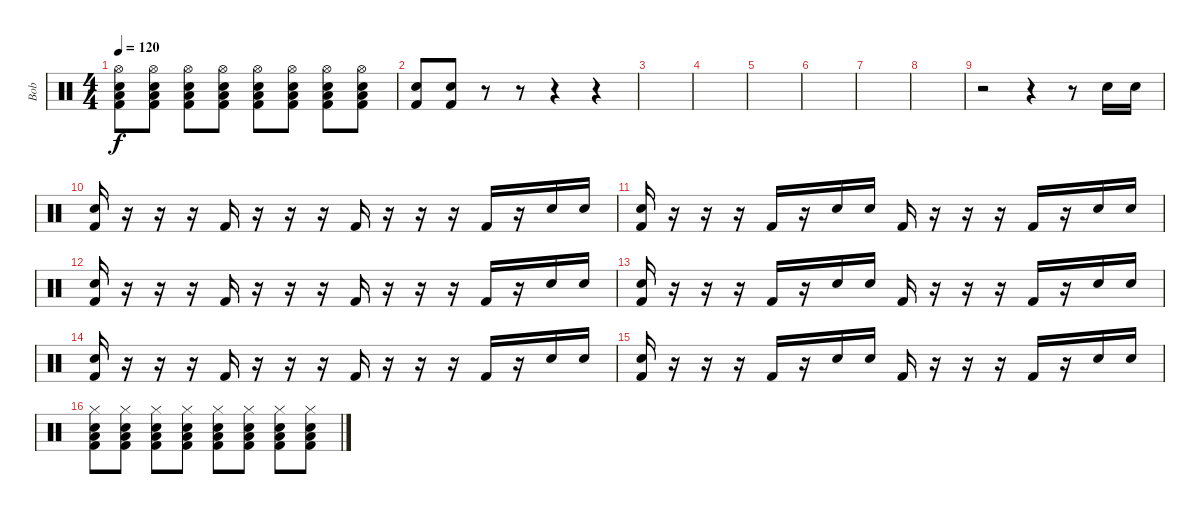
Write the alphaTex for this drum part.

\track ("Bob" "Bob") {instrument percussion}
\staff {score}
\articulation defaults
\ts (4 4)
\tempo 120
\clef neutral
\ks c
("Hi-Hat (open)" "Snare (hit) 2" "Low Tom (hit)" "Kick (hit) 2").8{dy f volume 10} ("Hi-Hat (open)" "Snare (hit) 2" "Low Tom (hit)" "Kick (hit) 2").8{volume 11} ("Hi-Hat (open)" "Snare (hit) 2" "Low Tom (hit)" "Kick (hit) 2").8{volume 12} ("Hi-Hat (open)" "Snare (hit) 2" "Low Tom (hit)" "Kick (hit) 2").8{volume 13} ("Hi-Hat (open)" "Snare (hit) 2" "Low Tom (hit)" "Kick (hit) 2").8 ("Hi-Hat (open)" "Snare (hit) 2" "Low Tom (hit)" "Kick (hit) 2").8 ("Hi-Hat (open)" "Snare (hit) 2" "Low Tom (hit)" "Kick (hit) 2").8 ("Hi-Hat (open)" "Snare (hit) 2" "Low Tom (hit)" "Kick (hit) 2").8 |
("Snare (hit) 2" "Kick (hit) 2").8 ("Snare (hit) 2" "Kick (hit) 2").8 r.8 r.8 r.4 r.4 |
|
|
|
|
|
|
r.2 r.4 r.8 "Snare (hit) 2".16 "Snare (hit) 2".16 |
("Snare (hit) 2" "Kick (hit) 2").16 r.16 r.16 r.16 "Kick (hit) 2".16 r.16 r.16 r.16 "Kick (hit) 2".16 r.16 r.16 r.16 "Kick (hit) 2".16 r.16 "Snare (hit) 2".16 "Snare (hit) 2".16 |
("Snare (hit) 2" "Kick (hit) 2").16 r.16 r.16 r.16 "Kick (hit) 2".16 r.16 "Snare (hit) 2".16 "Snare (hit) 2".16 "Kick (hit) 2".16 r.16 r.16 r.16 "Kick (hit) 2".16 r.16 "Snare (hit) 2".16 "Snare (hit) 2".16 |
("Snare (hit) 2" "Kick (hit) 2").16 r.16 r.16 r.16 "Kick (hit) 2".16 r.16 r.16 r.16 "Kick (hit) 2".16 r.16 r.16 r.16 "Kick (hit) 2".16 r.16 "Snare (hit) 2".16 "Snare (hit) 2".16 |
("Snare (hit) 2" "Kick (hit) 2").16 r.16 r.16 r.16 "Kick (hit) 2".16 r.16 "Snare (hit) 2".16 "Snare (hit) 2".16 "Kick (hit) 2".16 r.16 r.16 r.16 "Kick (hit) 2".16 r.16 "Snare (hit) 2".16 "Snare (hit) 2".16 |
("Snare (hit) 2" "Kick (hit) 2").16 r.16 r.16 r.16 "Kick (hit) 2".16 r.16 r.16 r.16 "Kick (hit) 2".16 r.16 r.16 r.16 "Kick (hit) 2".16 r.16 "Snare (hit) 2".16 "Snare (hit) 2".16 |
("Snare (hit) 2" "Kick (hit) 2").16 r.16 r.16 r.16 "Kick (hit) 2".16 r.16 "Snare (hit) 2".16 "Snare (hit) 2".16 "Kick (hit) 2".16 r.16 r.16 r.16 "Kick (hit) 2".16 r.16 "Snare (hit) 2".16 "Snare (hit) 2".16 |
("Hi-Hat (closed)" "Snare (hit) 2" "Low Tom (hit)" "Kick (hit) 2").8 ("Hi-Hat (closed)" "Snare (hit) 2" "Low Tom (hit)" "Kick (hit) 2").8{volume 3} ("Hi-Hat (closed)" "Snare (hit) 2" "Low Tom (hit)" "Kick (hit) 2").8{volume 3} ("Hi-Hat (closed)" "Snare (hit) 2" "Low Tom (hit)" "Kick (hit) 2").8{volume 4} ("Hi-Hat (closed)" "Snare (hit) 2" "Low Tom (hit)" "Kick (hit) 2").8{volume 6} ("Hi-Hat (closed)" "Snare (hit) 2" "Low Tom (hit)" "Kick (hit) 2").8{volume 7} ("Hi-Hat (closed)" "Snare (hit) 2" "Low Tom (hit)" "Kick (hit) 2").8{volume 8} ("Hi-Hat (closed)" "Snare (hit) 2" "Low Tom (hit)" "Kick (hit) 2").8{volume 9}
